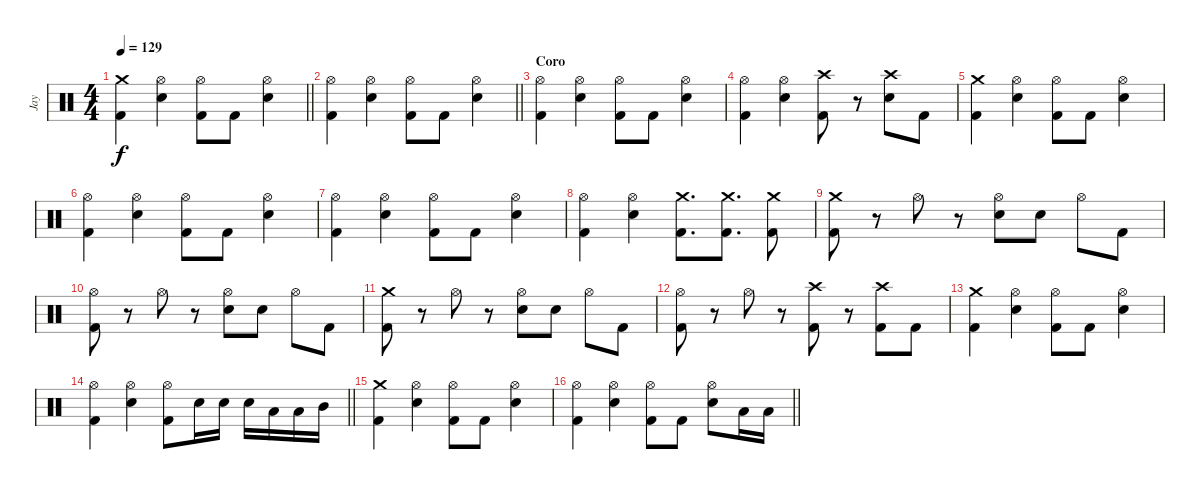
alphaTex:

\track ("Jay" "Jay") {instrument percussion}
\staff {score}
\articulation defaults
\ts (4 4)
\section ("" "")
\tempo 129
\clef neutral
\barLineRight lightlight
\ks c
("Crash medium (hit)" "Kick (hit) 2").4{dy f} ("Hi-Hat (open)" "Electric Snare (hit)").4 ("Hi-Hat (open)" "Kick (hit) 2").8 "Kick (hit) 2".8 ("Hi-Hat (open)" "Electric Snare (hit)").4 |
\section ("" "")
\barLineRight lightlight
("Hi-Hat (open)" "Kick (hit) 2").4 ("Hi-Hat (open)" "Electric Snare (hit)").4 ("Hi-Hat (open)" "Kick (hit) 2").8 "Kick (hit) 2".8 ("Hi-Hat (open)" "Electric Snare (hit)").4 |
\section ("" "Coro")
("Hi-Hat (open)" "Kick (hit) 2").4 ("Hi-Hat (open)" "Electric Snare (hit)").4 ("Hi-Hat (open)" "Kick (hit) 2").8 "Kick (hit) 2".8 ("Hi-Hat (open)" "Electric Snare (hit)").4 |
("Hi-Hat (open)" "Kick (hit) 2").4 ("Hi-Hat (open)" "Electric Snare (hit)").4 ("Crash high (hit)" "Kick (hit) 2").8 r.8 ("Crash high (hit)" "Electric Snare (hit)").8 "Kick (hit) 2".8 |
("Crash medium (hit)" "Kick (hit) 2").4 ("Hi-Hat (open)" "Electric Snare (hit)").4 ("Hi-Hat (open)" "Kick (hit) 2").8 "Kick (hit) 2".8 ("Hi-Hat (open)" "Electric Snare (hit)").4 |
("Hi-Hat (open)" "Kick (hit) 2").4 ("Hi-Hat (open)" "Electric Snare (hit)").4 ("Hi-Hat (open)" "Kick (hit) 2").8 "Kick (hit) 2".8 ("Hi-Hat (open)" "Electric Snare (hit)").4 |
("Hi-Hat (open)" "Kick (hit) 2").4 ("Hi-Hat (open)" "Electric Snare (hit)").4 ("Hi-Hat (open)" "Kick (hit) 2").8 "Kick (hit) 2".8 ("Hi-Hat (open)" "Electric Snare (hit)").4 |
("Hi-Hat (open)" "Kick (hit) 2").4 ("Hi-Hat (open)" "Electric Snare (hit)").4 ("Crash medium (hit)" "Kick (hit) 2").8{d} ("Crash medium (hit)" "Kick (hit) 2").8{d} ("Crash medium (hit)" "Kick (hit) 2").8 |
("Crash medium (hit)" "Kick (hit) 2").8 r.8 "Hi-Hat (open)".8 r.8 ("Hi-Hat (open)" "Electric Snare (hit)").8 "Electric Snare (hit)".8 "Hi-Hat (open)".8 "Kick (hit) 2".8 |
("Hi-Hat (open)" "Kick (hit) 2").8 r.8 "Hi-Hat (open)".8 r.8 ("Hi-Hat (open)" "Electric Snare (hit)").8 "Electric Snare (hit)".8 "Hi-Hat (open)".8 "Kick (hit) 2".8 |
("Crash medium (hit)" "Kick (hit) 2").8 r.8 "Hi-Hat (open)".8 r.8 ("Hi-Hat (open)" "Electric Snare (hit)").8 "Electric Snare (hit)".8 "Hi-Hat (open)".8 "Kick (hit) 2".8 |
("Hi-Hat (open)" "Kick (hit) 2").8 r.8 "Hi-Hat (open)".8 r.8 ("Crash high (hit)" "Kick (hit) 2").8 r.8 ("Crash high (hit)" "Kick (hit) 2").8 "Kick (hit) 2".8 |
("Crash medium (hit)" "Kick (hit) 2").4 ("Hi-Hat (open)" "Electric Snare (hit)").4 ("Hi-Hat (open)" "Kick (hit) 2").8 "Kick (hit) 2".8 ("Hi-Hat (open)" "Electric Snare (hit)").4 |
\barLineRight lightlight
("Hi-Hat (open)" "Kick (hit) 2").4 ("Hi-Hat (open)" "Electric Snare (hit)").4 ("Hi-Hat (open)" "Kick (hit) 2").8 "Electric Snare (hit)".16 "Electric Snare (hit)".16 "Electric Snare (hit)".16 "Low Tom (hit)".16 "Low Tom (hit)".16 "Mid Tom (hit)".16 |
("Crash medium (hit)" "Kick (hit) 2").4 ("Hi-Hat (open)" "Electric Snare (hit)").4 ("Hi-Hat (open)" "Kick (hit) 2").8 "Kick (hit) 2".8 ("Hi-Hat (open)" "Electric Snare (hit)").4 |
\barLineRight lightlight
("Hi-Hat (open)" "Kick (hit) 2").4 ("Hi-Hat (open)" "Electric Snare (hit)").4 ("Hi-Hat (open)" "Kick (hit) 2").8 "Kick (hit) 2".8 ("Hi-Hat (open)" "Electric Snare (hit)").8 "Low Tom (hit)".16 "Low Tom (hit)".16
